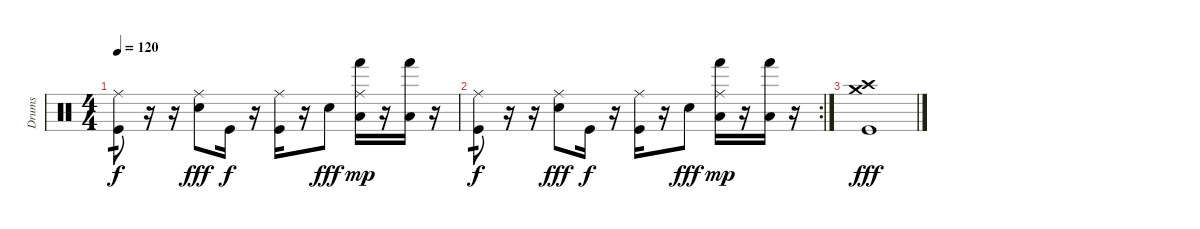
\track ("Drums" "Drums") {instrument percussion}
\staff {score}
\articulation defaults
\ts (4 4)
\tempo 120
\clef neutral
\ks c
("Ride (middle)" "Kick (hit)").8{tp 1 dy f} r.16 r.16 ("Ride (middle)" "Electric Snare (hit)").8{dy fff} "Kick (hit)".16{dy f} r.16 ("Ride (middle)" "Kick (hit)").16 r.16 "Electric Snare (hit)".8{dy fff} ("Ride (middle)" "Low Tom (hit)" "Hand (hit)").16{dy mp} r.16 ("Low Tom (hit)" "Hand (hit)").16 r.16 |
\rc 2
("Ride (middle)" "Kick (hit)").8{tp 1 dy f} r.16 r.16 ("Ride (middle)" "Electric Snare (hit)").8{dy fff} "Kick (hit)".16{dy f} r.16 ("Ride (middle)" "Kick (hit)").16 r.16 "Electric Snare (hit)".8{dy fff} ("Ride (middle)" "Low Tom (hit)" "Hand (hit)").16{dy mp} r.16 ("Low Tom (hit)" "Hand (hit)").16 r.16 |
("Crash medium (hit)" "Crash high (hit)" "Kick (hit)").1{dy fff}
